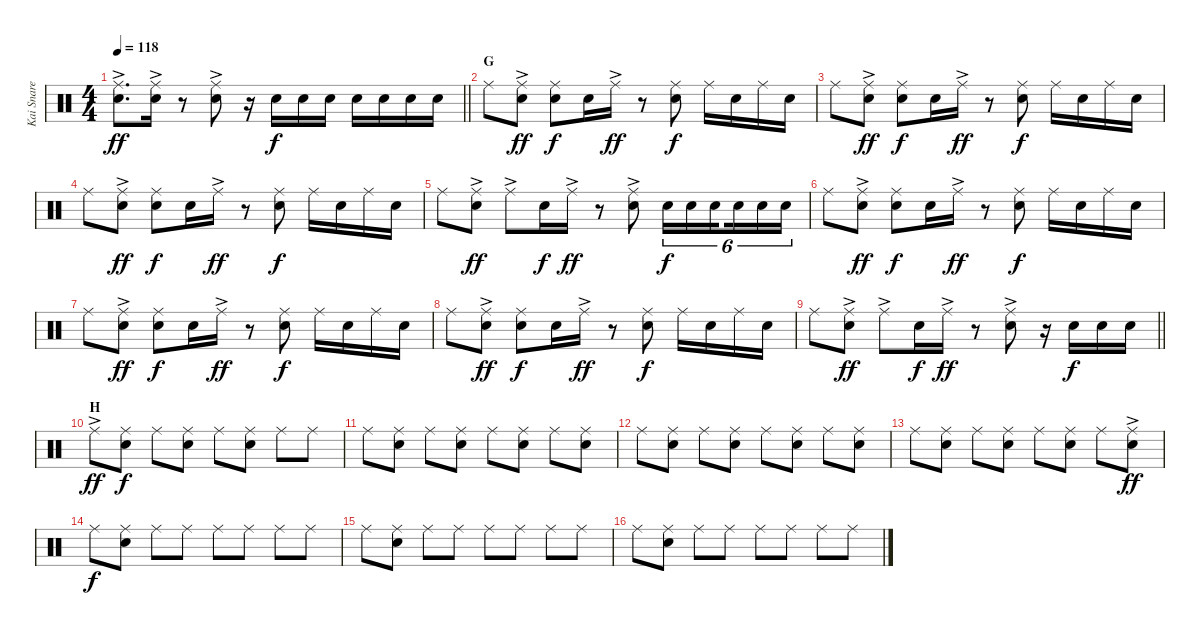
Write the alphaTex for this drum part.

\track ("Kai Snare" "Kai Snare") {instrument percussion}
\staff {score}
\articulation defaults
\ts (4 4)
\tempo 118
\clef neutral
\barLineRight lightlight
\ks c
("Ride (middle)"{ac} "Snare (hit) 2").8{d dy ff} ("Ride (middle)"{ac} "Snare (hit) 2").16 r.8 ("Ride (middle)"{ac} "Snare (hit) 2").8 r.16 "Snare (hit) 2".16{dy f} "Snare (hit) 2".16 "Snare (hit) 2".16 "Snare (hit) 2".16 "Snare (hit) 2".16 "Snare (hit) 2".16 "Snare (hit) 2".16 |
\section ("" "G")
"Ride (middle)".8 ("Ride (middle)"{ac} "Snare (hit) 2").8{dy ff} ("Ride (middle)" "Snare (hit) 2").8{dy f} "Snare (hit) 2".16 "Ride (middle)"{ac}.16{dy ff} r.8 ("Ride (middle)" "Snare (hit) 2").8{dy f} "Ride (middle)".16 "Snare (hit) 2".16 "Ride (middle)".16 "Snare (hit) 2".16 |
"Ride (middle)".8 ("Ride (middle)"{ac} "Snare (hit) 2").8{dy ff} ("Ride (middle)" "Snare (hit) 2").8{dy f} "Snare (hit) 2".16 "Ride (middle)"{ac}.16{dy ff} r.8 ("Ride (middle)" "Snare (hit) 2").8{dy f} "Ride (middle)".16 "Snare (hit) 2".16 "Ride (middle)".16 "Snare (hit) 2".16 |
"Ride (middle)".8 ("Ride (middle)"{ac} "Snare (hit) 2").8{dy ff} ("Ride (middle)" "Snare (hit) 2").8{dy f} "Snare (hit) 2".16 "Ride (middle)"{ac}.16{dy ff} r.8 ("Ride (middle)" "Snare (hit) 2").8{dy f} "Ride (middle)".16 "Snare (hit) 2".16 "Ride (middle)".16 "Snare (hit) 2".16 |
"Ride (middle)".8 ("Ride (middle)"{ac} "Snare (hit) 2").8{dy ff} "Ride (middle)"{ac}.8 "Snare (hit) 2".16{dy f} "Ride (middle)"{ac}.16{dy ff} r.8 ("Ride (middle)"{ac} "Snare (hit) 2").8 "Snare (hit) 2".16{tu (6 4) dy f} "Snare (hit) 2".16{tu (6 4)} "Snare (hit) 2".16{tu (6 4) beam splitsecondary} "Snare (hit) 2".16{tu (6 4)} "Snare (hit) 2".16{tu (6 4)} "Snare (hit) 2".16{tu (6 4)} |
"Ride (middle)".8 ("Ride (middle)"{ac} "Snare (hit) 2").8{dy ff} ("Ride (middle)" "Snare (hit) 2").8{dy f} "Snare (hit) 2".16 "Ride (middle)"{ac}.16{dy ff} r.8 ("Ride (middle)" "Snare (hit) 2").8{dy f} "Ride (middle)".16 "Snare (hit) 2".16 "Ride (middle)".16 "Snare (hit) 2".16 |
"Ride (middle)".8 ("Ride (middle)"{ac} "Snare (hit) 2").8{dy ff} ("Ride (middle)" "Snare (hit) 2").8{dy f} "Snare (hit) 2".16 "Ride (middle)"{ac}.16{dy ff} r.8 ("Ride (middle)" "Snare (hit) 2").8{dy f} "Ride (middle)".16 "Snare (hit) 2".16 "Ride (middle)".16 "Snare (hit) 2".16 |
"Ride (middle)".8 ("Ride (middle)"{ac} "Snare (hit) 2").8{dy ff} ("Ride (middle)" "Snare (hit) 2").8{dy f} "Snare (hit) 2".16 "Ride (middle)"{ac}.16{dy ff} r.8 ("Ride (middle)" "Snare (hit) 2").8{dy f} "Ride (middle)".16 "Snare (hit) 2".16 "Ride (middle)".16 "Snare (hit) 2".16 |
\barLineRight lightlight "Ride (middle)".8
("Ride (middle)"{ac} "Snare (hit) 2").8{dy ff} "Ride (middle)"{ac}.8 "Snare (hit) 2".16{dy f} "Ride (middle)"{ac}.16{dy ff} r.8 ("Ride (middle)"{ac} "Snare (hit) 2").8 r.16 "Snare (hit) 2".16{dy f} "Snare (hit) 2".16 "Snare (hit) 2".16 |
\section ("" "H")
"Ride (middle)"{ac}.8{dy ff} ("Ride (middle)" "Snare (hit) 2").8{dy f} "Ride (middle)".8 ("Ride (middle)" "Snare (hit) 2").8 "Ride (middle)".8 ("Ride (middle)" "Snare (hit) 2").8 "Ride (middle)".8 "Ride (middle)".8 |
"Ride (middle)".8 ("Ride (middle)" "Snare (hit) 2").8 "Ride (middle)".8 ("Ride (middle)" "Snare (hit) 2").8 "Ride (middle)".8 ("Ride (middle)" "Snare (hit) 2").8 "Ride (middle)".8 ("Ride (middle)" "Snare (hit) 2").8 |
"Ride (middle)".8 ("Ride (middle)" "Snare (hit) 2").8 "Ride (middle)".8 ("Ride (middle)" "Snare (hit) 2").8 "Ride (middle)".8 ("Ride (middle)" "Snare (hit) 2").8 "Ride (middle)".8 ("Ride (middle)" "Snare (hit) 2").8 |
"Ride (middle)".8 ("Ride (middle)" "Snare (hit) 2").8 "Ride (middle)".8 ("Ride (middle)" "Snare (hit) 2").8 "Ride (middle)".8 ("Ride (middle)" "Snare (hit) 2").8 "Ride (middle)".8 ("Ride (middle)"{ac} "Snare (hit) 2").8{dy ff} |
"Ride (middle)".8{dy f} ("Ride (middle)" "Snare (hit) 2").8 "Ride (middle)".8 "Ride (middle)".8 "Ride (middle)".8 "Ride (middle)".8 "Ride (middle)".8 "Ride (middle)".8 |
"Ride (middle)".8 ("Ride (middle)" "Snare (hit) 2").8 "Ride (middle)".8 "Ride (middle)".8 "Ride (middle)".8 "Ride (middle)".8 "Ride (middle)".8 "Ride (middle)".8 |
"Ride (middle)".8 ("Ride (middle)" "Snare (hit) 2").8 "Ride (middle)".8 "Ride (middle)".8 "Ride (middle)".8 "Ride (middle)".8 "Ride (middle)".8 "Ride (middle)".8
